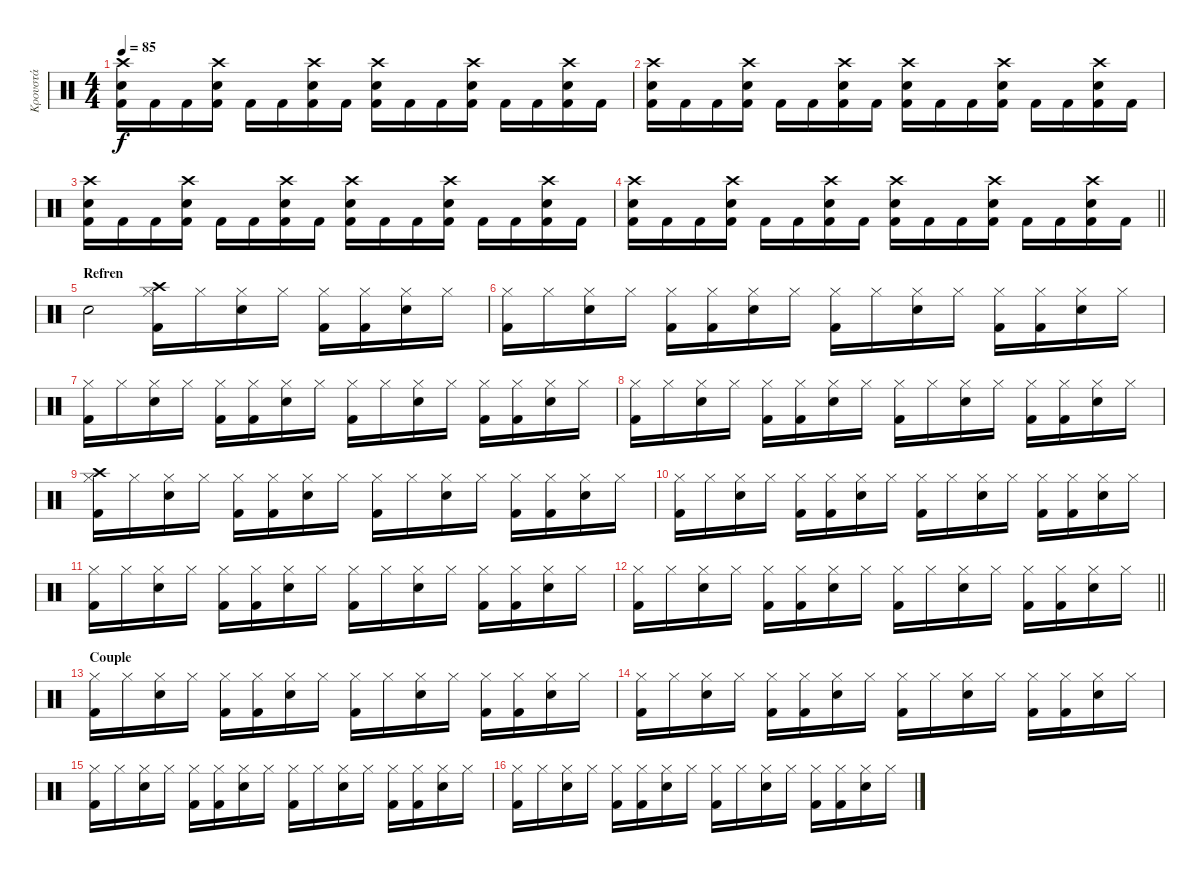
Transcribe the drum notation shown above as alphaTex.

\track ("Κρουστά" "Κρουστά") {instrument percussion}
\staff {score}
\articulation defaults
\ts (4 4)
\tempo 85
\clef neutral
\ks c
("Crash high (hit)" "Snare (hit) 2" "Kick (hit) 2").16{dy f} "Kick (hit) 2".16 "Kick (hit) 2".16 ("Crash high (hit)" "Snare (hit) 2" "Kick (hit) 2").16 "Kick (hit) 2".16 "Kick (hit) 2".16 ("Crash high (hit)" "Snare (hit) 2" "Kick (hit) 2").16 "Kick (hit) 2".16 ("Crash high (hit)" "Snare (hit) 2" "Kick (hit) 2").16 "Kick (hit) 2".16 "Kick (hit) 2".16 ("Crash high (hit)" "Snare (hit) 2" "Kick (hit) 2").16 "Kick (hit) 2".16 "Kick (hit) 2".16 ("Crash high (hit)" "Snare (hit) 2" "Kick (hit) 2").16 "Kick (hit) 2".16 |
("Crash high (hit)" "Snare (hit) 2" "Kick (hit) 2").16 "Kick (hit) 2".16 "Kick (hit) 2".16 ("Crash high (hit)" "Snare (hit) 2" "Kick (hit) 2").16 "Kick (hit) 2".16 "Kick (hit) 2".16 ("Crash high (hit)" "Snare (hit) 2" "Kick (hit) 2").16 "Kick (hit) 2".16 ("Crash high (hit)" "Snare (hit) 2" "Kick (hit) 2").16 "Kick (hit) 2".16 "Kick (hit) 2".16 ("Crash high (hit)" "Snare (hit) 2" "Kick (hit) 2").16 "Kick (hit) 2".16 "Kick (hit) 2".16 ("Crash high (hit)" "Snare (hit) 2" "Kick (hit) 2").16 "Kick (hit) 2".16 |
("Crash high (hit)" "Snare (hit) 2" "Kick (hit) 2").16 "Kick (hit) 2".16 "Kick (hit) 2".16 ("Crash high (hit)" "Snare (hit) 2" "Kick (hit) 2").16 "Kick (hit) 2".16 "Kick (hit) 2".16 ("Crash high (hit)" "Snare (hit) 2" "Kick (hit) 2").16 "Kick (hit) 2".16 ("Crash high (hit)" "Snare (hit) 2" "Kick (hit) 2").16 "Kick (hit) 2".16 "Kick (hit) 2".16 ("Crash high (hit)" "Snare (hit) 2" "Kick (hit) 2").16 "Kick (hit) 2".16 "Kick (hit) 2".16 ("Crash high (hit)" "Snare (hit) 2" "Kick (hit) 2").16 "Kick (hit) 2".16 |
\barLineRight lightlight
("Crash high (hit)" "Snare (hit) 2" "Kick (hit) 2").16 "Kick (hit) 2".16 "Kick (hit) 2".16 ("Crash high (hit)" "Snare (hit) 2" "Kick (hit) 2").16 "Kick (hit) 2".16 "Kick (hit) 2".16 ("Crash high (hit)" "Snare (hit) 2" "Kick (hit) 2").16 "Kick (hit) 2".16 ("Crash high (hit)" "Snare (hit) 2" "Kick (hit) 2").16 "Kick (hit) 2".16 "Kick (hit) 2".16 ("Crash high (hit)" "Snare (hit) 2" "Kick (hit) 2").16 "Kick (hit) 2".16 "Kick (hit) 2".16 ("Crash high (hit)" "Snare (hit) 2" "Kick (hit) 2").16 "Kick (hit) 2".16 |
\section ("" "Refren")
"Snare (hit) 2".2 ("Crash high (hit)" "Hi-Hat (closed)" "Kick (hit) 2").16 "Hi-Hat (closed)".16 ("Hi-Hat (closed)" "Snare (hit) 2").16 "Hi-Hat (closed)".16 ("Hi-Hat (closed)" "Kick (hit) 2").16 ("Hi-Hat (closed)" "Kick (hit) 2").16 ("Hi-Hat (closed)" "Snare (hit) 2").16 "Hi-Hat (closed)".16 |
("Hi-Hat (closed)" "Kick (hit) 2").16 "Hi-Hat (closed)".16 ("Hi-Hat (closed)" "Snare (hit) 2").16 "Hi-Hat (closed)".16 ("Hi-Hat (closed)" "Kick (hit) 2").16 ("Hi-Hat (closed)" "Kick (hit) 2").16 ("Hi-Hat (closed)" "Snare (hit) 2").16 "Hi-Hat (closed)".16 ("Hi-Hat (closed)" "Kick (hit) 2").16 "Hi-Hat (closed)".16 ("Hi-Hat (closed)" "Snare (hit) 2").16 "Hi-Hat (closed)".16 ("Hi-Hat (closed)" "Kick (hit) 2").16 ("Hi-Hat (closed)" "Kick (hit) 2").16 ("Hi-Hat (closed)" "Snare (hit) 2").16 "Hi-Hat (closed)".16 |
("Hi-Hat (closed)" "Kick (hit) 2").16 "Hi-Hat (closed)".16 ("Hi-Hat (closed)" "Snare (hit) 2").16 "Hi-Hat (closed)".16 ("Hi-Hat (closed)" "Kick (hit) 2").16 ("Hi-Hat (closed)" "Kick (hit) 2").16 ("Hi-Hat (closed)" "Snare (hit) 2").16 "Hi-Hat (closed)".16 ("Hi-Hat (closed)" "Kick (hit) 2").16 "Hi-Hat (closed)".16 ("Hi-Hat (closed)" "Snare (hit) 2").16 "Hi-Hat (closed)".16 ("Hi-Hat (closed)" "Kick (hit) 2").16 ("Hi-Hat (closed)" "Kick (hit) 2").16 ("Hi-Hat (closed)" "Snare (hit) 2").16 "Hi-Hat (closed)".16 |
("Hi-Hat (closed)" "Kick (hit) 2").16 "Hi-Hat (closed)".16 ("Hi-Hat (closed)" "Snare (hit) 2").16 "Hi-Hat (closed)".16 ("Hi-Hat (closed)" "Kick (hit) 2").16 ("Hi-Hat (closed)" "Kick (hit) 2").16 ("Hi-Hat (closed)" "Snare (hit) 2").16 "Hi-Hat (closed)".16 ("Hi-Hat (closed)" "Kick (hit) 2").16 "Hi-Hat (closed)".16 ("Hi-Hat (closed)" "Snare (hit) 2").16 "Hi-Hat (closed)".16 ("Hi-Hat (closed)" "Kick (hit) 2").16 ("Hi-Hat (closed)" "Kick (hit) 2").16 ("Hi-Hat (closed)" "Snare (hit) 2").16 "Hi-Hat (closed)".16 |
("Crash high (hit)" "Hi-Hat (closed)" "Kick (hit) 2").16 "Hi-Hat (closed)".16 ("Hi-Hat (closed)" "Snare (hit) 2").16 "Hi-Hat (closed)".16 ("Hi-Hat (closed)" "Kick (hit) 2").16 ("Hi-Hat (closed)" "Kick (hit) 2").16 ("Hi-Hat (closed)" "Snare (hit) 2").16 "Hi-Hat (closed)".16 ("Hi-Hat (closed)" "Kick (hit) 2").16 "Hi-Hat (closed)".16 ("Hi-Hat (closed)" "Snare (hit) 2").16 "Hi-Hat (closed)".16 ("Hi-Hat (closed)" "Kick (hit) 2").16 ("Hi-Hat (closed)" "Kick (hit) 2").16 ("Hi-Hat (closed)" "Snare (hit) 2").16 "Hi-Hat (closed)".16 |
("Hi-Hat (closed)" "Kick (hit) 2").16 "Hi-Hat (closed)".16 ("Hi-Hat (closed)" "Snare (hit) 2").16 "Hi-Hat (closed)".16 ("Hi-Hat (closed)" "Kick (hit) 2").16 ("Hi-Hat (closed)" "Kick (hit) 2").16 ("Hi-Hat (closed)" "Snare (hit) 2").16 "Hi-Hat (closed)".16 ("Hi-Hat (closed)" "Kick (hit) 2").16 "Hi-Hat (closed)".16 ("Hi-Hat (closed)" "Snare (hit) 2").16 "Hi-Hat (closed)".16 ("Hi-Hat (closed)" "Kick (hit) 2").16 ("Hi-Hat (closed)" "Kick (hit) 2").16 ("Hi-Hat (closed)" "Snare (hit) 2").16 "Hi-Hat (closed)".16 |
("Hi-Hat (closed)" "Kick (hit) 2").16 "Hi-Hat (closed)".16 ("Hi-Hat (closed)" "Snare (hit) 2").16 "Hi-Hat (closed)".16 ("Hi-Hat (closed)" "Kick (hit) 2").16 ("Hi-Hat (closed)" "Kick (hit) 2").16 ("Hi-Hat (closed)" "Snare (hit) 2").16 "Hi-Hat (closed)".16 ("Hi-Hat (closed)" "Kick (hit) 2").16 "Hi-Hat (closed)".16 ("Hi-Hat (closed)" "Snare (hit) 2").16 "Hi-Hat (closed)".16 ("Hi-Hat (closed)" "Kick (hit) 2").16 ("Hi-Hat (closed)" "Kick (hit) 2").16 ("Hi-Hat (closed)" "Snare (hit) 2").16 "Hi-Hat (closed)".16 |
\barLineRight lightlight
("Hi-Hat (closed)" "Kick (hit) 2").16 "Hi-Hat (closed)".16 ("Hi-Hat (closed)" "Snare (hit) 2").16 "Hi-Hat (closed)".16 ("Hi-Hat (closed)" "Kick (hit) 2").16 ("Hi-Hat (closed)" "Kick (hit) 2").16 ("Hi-Hat (closed)" "Snare (hit) 2").16 "Hi-Hat (closed)".16 ("Hi-Hat (closed)" "Kick (hit) 2").16 "Hi-Hat (closed)".16 ("Hi-Hat (closed)" "Snare (hit) 2").16 "Hi-Hat (closed)".16 ("Hi-Hat (closed)" "Kick (hit) 2").16 ("Hi-Hat (closed)" "Kick (hit) 2").16 ("Hi-Hat (closed)" "Snare (hit) 2").16 "Hi-Hat (closed)".16 |
\section ("" "Couple")
("Hi-Hat (closed)" "Kick (hit) 2").16 "Hi-Hat (closed)".16 ("Hi-Hat (closed)" "Snare (hit) 2").16 "Hi-Hat (closed)".16 ("Hi-Hat (closed)" "Kick (hit) 2").16 ("Hi-Hat (closed)" "Kick (hit) 2").16 ("Hi-Hat (closed)" "Snare (hit) 2").16 "Hi-Hat (closed)".16 ("Hi-Hat (closed)" "Kick (hit) 2").16 "Hi-Hat (closed)".16 ("Hi-Hat (closed)" "Snare (hit) 2").16 "Hi-Hat (closed)".16 ("Hi-Hat (closed)" "Kick (hit) 2").16 ("Hi-Hat (closed)" "Kick (hit) 2").16 ("Hi-Hat (closed)" "Snare (hit) 2").16 "Hi-Hat (closed)".16 |
("Hi-Hat (closed)" "Kick (hit) 2").16 "Hi-Hat (closed)".16 ("Hi-Hat (closed)" "Snare (hit) 2").16 "Hi-Hat (closed)".16 ("Hi-Hat (closed)" "Kick (hit) 2").16 ("Hi-Hat (closed)" "Kick (hit) 2").16 ("Hi-Hat (closed)" "Snare (hit) 2").16 "Hi-Hat (closed)".16 ("Hi-Hat (closed)" "Kick (hit) 2").16 "Hi-Hat (closed)".16 ("Hi-Hat (closed)" "Snare (hit) 2").16 "Hi-Hat (closed)".16 ("Hi-Hat (closed)" "Kick (hit) 2").16 ("Hi-Hat (closed)" "Kick (hit) 2").16 ("Hi-Hat (closed)" "Snare (hit) 2").16 "Hi-Hat (closed)".16 |
("Hi-Hat (closed)" "Kick (hit) 2").16 "Hi-Hat (closed)".16 ("Hi-Hat (closed)" "Snare (hit) 2").16 "Hi-Hat (closed)".16 ("Hi-Hat (closed)" "Kick (hit) 2").16 ("Hi-Hat (closed)" "Kick (hit) 2").16 ("Hi-Hat (closed)" "Snare (hit) 2").16 "Hi-Hat (closed)".16 ("Hi-Hat (closed)" "Kick (hit) 2").16 "Hi-Hat (closed)".16 ("Hi-Hat (closed)" "Snare (hit) 2").16 "Hi-Hat (closed)".16 ("Hi-Hat (closed)" "Kick (hit) 2").16 ("Hi-Hat (closed)" "Kick (hit) 2").16 ("Hi-Hat (closed)" "Snare (hit) 2").16 "Hi-Hat (closed)".16 |
("Hi-Hat (closed)" "Kick (hit) 2").16 "Hi-Hat (closed)".16 ("Hi-Hat (closed)" "Snare (hit) 2").16 "Hi-Hat (closed)".16 ("Hi-Hat (closed)" "Kick (hit) 2").16 ("Hi-Hat (closed)" "Kick (hit) 2").16 ("Hi-Hat (closed)" "Snare (hit) 2").16 "Hi-Hat (closed)".16 ("Hi-Hat (closed)" "Kick (hit) 2").16 "Hi-Hat (closed)".16 ("Hi-Hat (closed)" "Snare (hit) 2").16 "Hi-Hat (closed)".16 ("Hi-Hat (closed)" "Kick (hit) 2").16 ("Hi-Hat (closed)" "Kick (hit) 2").16 ("Hi-Hat (closed)" "Snare (hit) 2").16 "Hi-Hat (closed)".16
